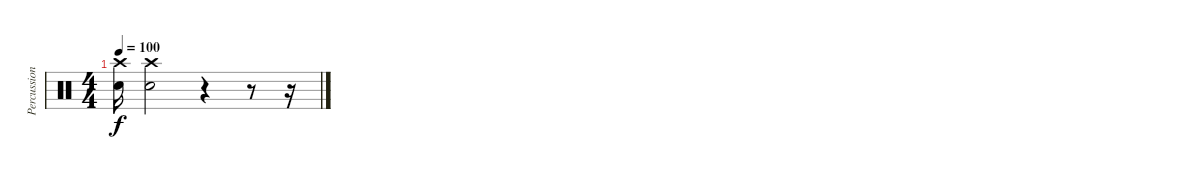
\track ("Percussion" "Percussion") {instrument percussion}
\staff {score}
\articulation defaults
\ts (4 4)
\tempo 100
\clef neutral
\ks c
("Snare (hit) 2" "Crash high (hit)").16{dy f} ("Crash high (hit)" "Snare (hit) 2").2 r.4 r.8 r.16
